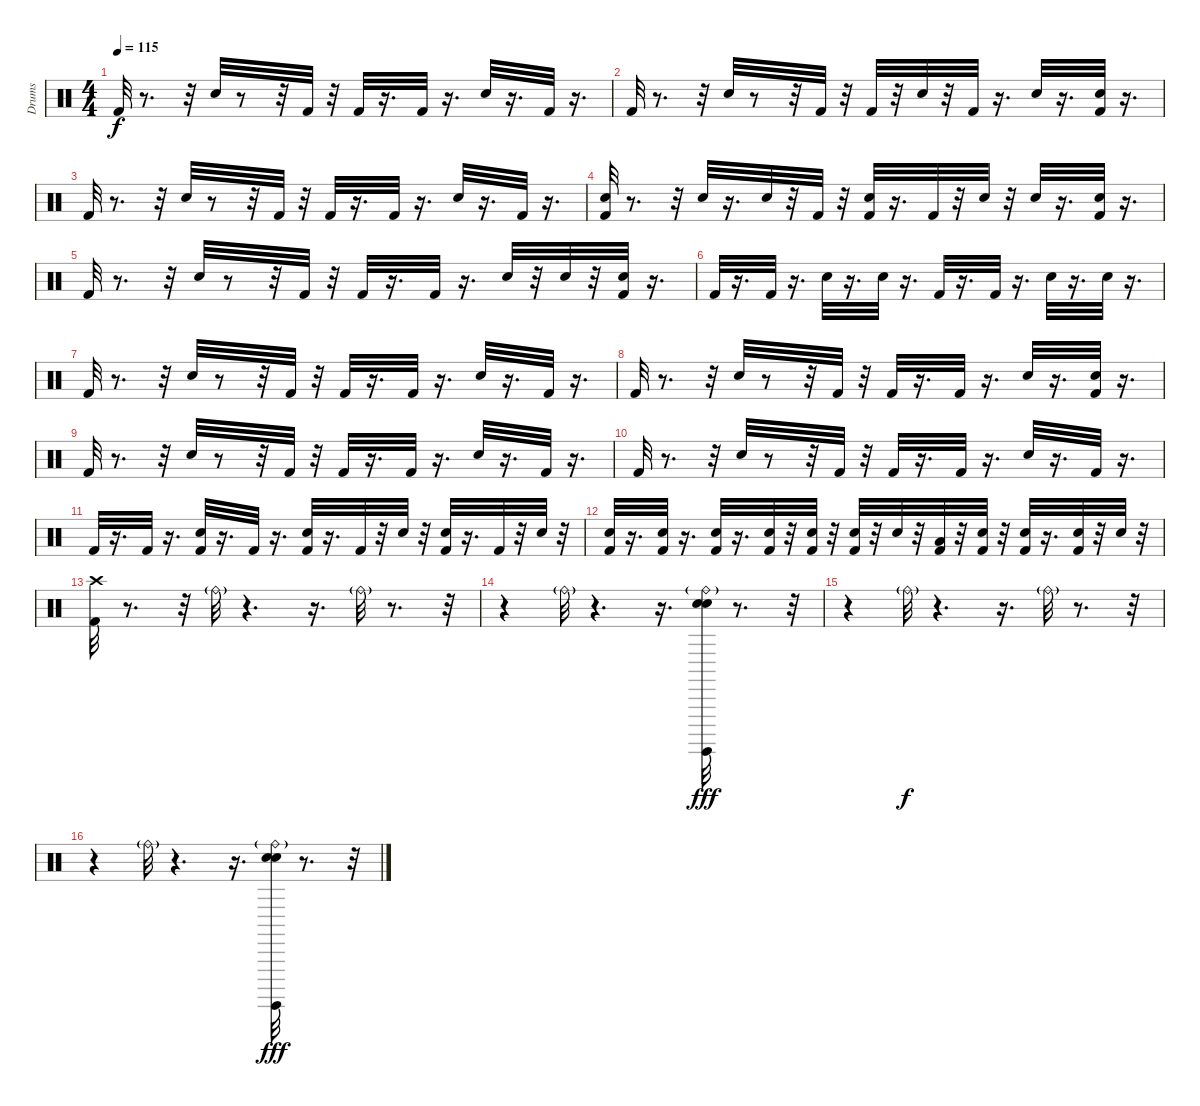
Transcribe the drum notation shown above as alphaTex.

\track ("Drums" "Drums") {instrument percussion}
\staff {score}
\articulation defaults
\ts (4 4)
\tempo 115
\clef neutral
\ks c "Kick (hit) 2".32{dy f}
r.8{d} r.32 "Snare (hit) 2".32 r.8 r.32 "Kick (hit) 2".32 r.32 "Kick (hit) 2".32 r.16{d} "Kick (hit) 2".32 r.16{d} "Snare (hit) 2".32 r.16{d} "Kick (hit) 2".32 r.16{d} |
"Kick (hit) 2".32 r.8{d} r.32 "Snare (hit) 2".32 r.8 r.32 "Kick (hit) 2".32 r.32 "Kick (hit) 2".32 r.32 "Snare (hit) 2".32 r.32 "Kick (hit) 2".32 r.16{d} "Snare (hit) 2".32 r.16{d} ("Snare (hit) 2" "Kick (hit) 2").32 r.16{d} |
"Kick (hit) 2".32 r.8{d} r.32 "Snare (hit) 2".32 r.8 r.32 "Kick (hit) 2".32 r.32 "Kick (hit) 2".32 r.16{d} "Kick (hit) 2".32 r.16{d} "Snare (hit) 2".32 r.16{d} "Kick (hit) 2".32 r.16{d} |
("Snare (hit) 2" "Kick (hit) 2").32 r.8{d} r.32 "Snare (hit) 2".32 r.16{d} "Snare (hit) 2".32 r.32 "Kick (hit) 2".32 r.32 ("Snare (hit) 2" "Kick (hit) 2").32 r.16{d} "Kick (hit) 2".32 r.32 "Snare (hit) 2".32 r.32 "Snare (hit) 2".32 r.16{d} ("Snare (hit) 2" "Kick (hit) 2").32 r.16{d} |
"Kick (hit) 2".32 r.8{d} r.32 "Snare (hit) 2".32 r.8 r.32 "Kick (hit) 2".32 r.32 "Kick (hit) 2".32 r.16{d} "Kick (hit) 2".32 r.16{d} "Snare (hit) 2".32 r.32 "Snare (hit) 2".32 r.32 ("Snare (hit) 2" "Kick (hit) 2").32 r.16{d} |
"Kick (hit) 2".32 r.16{d} "Kick (hit) 2".32 r.16{d} "Snare (hit) 2".32 r.16{d} "Snare (hit) 2".32 r.16{d} "Kick (hit) 2".32 r.16{d} "Kick (hit) 2".32 r.16{d} "Snare (hit) 2".32 r.16{d} "Snare (hit) 2".32 r.16{d} |
"Kick (hit) 2".32 r.8{d} r.32 "Snare (hit) 2".32 r.8 r.32 "Kick (hit) 2".32 r.32 "Kick (hit) 2".32 r.16{d} "Kick (hit) 2".32 r.16{d} "Snare (hit) 2".32 r.16{d} "Kick (hit) 2".32 r.16{d} |
"Kick (hit) 2".32 r.8{d} r.32 "Snare (hit) 2".32 r.8 r.32 "Kick (hit) 2".32 r.32 "Kick (hit) 2".32 r.16{d} "Kick (hit) 2".32 r.16{d} "Snare (hit) 2".32 r.16{d} ("Snare (hit) 2" "Kick (hit) 2").32 r.16{d} |
"Kick (hit) 2".32 r.8{d} r.32 "Snare (hit) 2".32 r.8 r.32 "Kick (hit) 2".32 r.32 "Kick (hit) 2".32 r.16{d} "Kick (hit) 2".32 r.16{d} "Snare (hit) 2".32 r.16{d} "Kick (hit) 2".32 r.16{d} |
"Kick (hit) 2".32 r.8{d} r.32 "Snare (hit) 2".32 r.8 r.32 "Kick (hit) 2".32 r.32 "Kick (hit) 2".32 r.16{d} "Kick (hit) 2".32 r.16{d} "Snare (hit) 2".32 r.16{d} "Kick (hit) 2".32 r.16{d} |
"Kick (hit) 2".32 r.16{d} "Kick (hit) 2".32 r.16{d} ("Kick (hit) 2" "Snare (hit) 2").32 r.16{d} "Kick (hit) 2".32 r.16{d} ("Snare (hit) 2" "Kick (hit) 2").32 r.16{d} "Kick (hit) 2".32 r.32 "Snare (hit) 2".32 r.32 ("Kick (hit) 2" "Snare (hit) 2").32 r.16{d} "Kick (hit) 2".32 r.32 "Snare (hit) 2".32 r.32 |
("Snare (hit) 2" "Kick (hit) 2").32 r.16{d} ("Snare (hit) 2" "Kick (hit) 2").32 r.16{d} ("Kick (hit) 2" "Snare (hit) 2").32 r.16{d} ("Snare (hit) 2" "Kick (hit) 2").32 r.32 ("Kick (hit) 2" "Snare (hit) 2").32 r.32 ("Snare (hit) 2" "Kick (hit) 2").32 r.32 "Snare (hit) 2".32 r.32 ("Kick (hit) 2" "Low Floor Tom (hit)").32 r.32 ("Kick (hit) 2" "Snare (hit) 2").32 r.32 ("Kick (hit) 2" "Snare (hit) 2").32 r.16{d} ("Snare (hit) 2" "Kick (hit) 2").32 r.32 "Snare (hit) 2".32 r.32 |
("Kick (hit) 2" "Crash high (hit)").32 r.8{d} r.32 "Ride (bell)"{g}.32 r.4{d} r.16{d} "Ride (bell)"{g}.32 r.8{d} r.32 |
r.4 "Ride (bell)"{g}.32 r.4{d} r.16{d} ("Surdo (hit)" "Ride (bell)"{g} "Electric Snare (hit)" "Snare (hit) 2").32{dy fff} r.8{d} r.32 |
r.4 "Ride (bell)"{g}.32{dy f} r.4{d} r.16{d} "Ride (bell)"{g}.32 r.8{d} r.32 |
r.4 "Ride (bell)"{g}.32 r.4{d} r.16{d} ("Ride (bell)"{g} "Surdo (hit)" "Electric Snare (hit)" "Snare (hit) 2").32{dy fff} r.8{d} r.32
